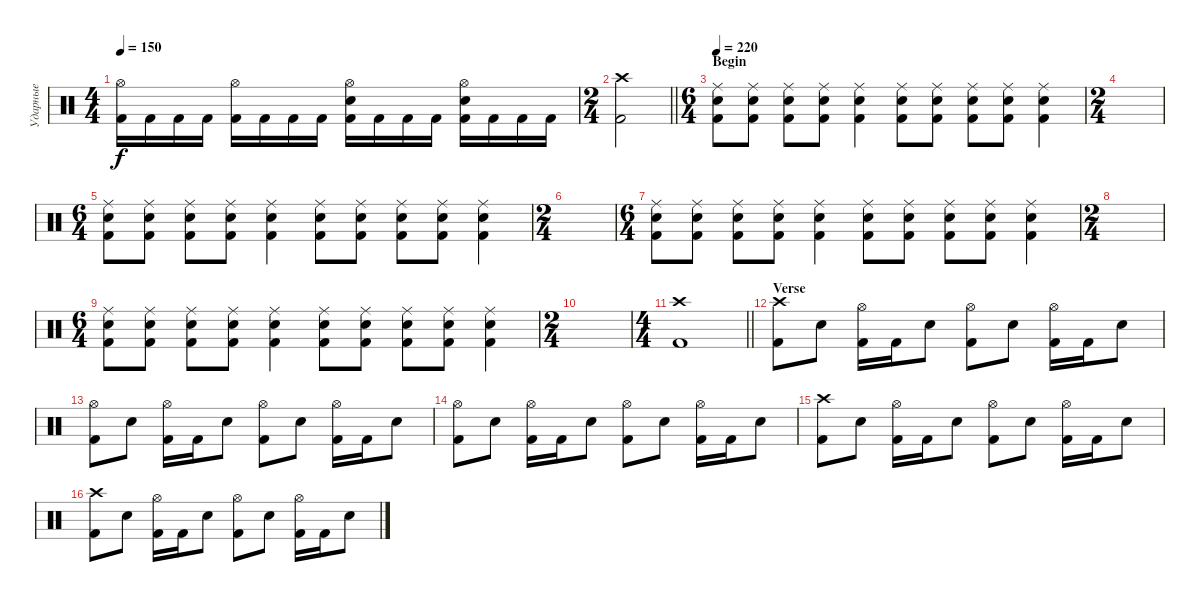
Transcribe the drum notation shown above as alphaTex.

\track ("Ударные" "Ударные") {instrument percussion}
\staff {score}
\articulation defaults
\ts (4 4)
\tempo 150
\clef neutral
\ks c
("Hi-Hat (open)" "Kick (hit) 2").16{dy f} "Kick (hit) 2".16 "Kick (hit) 2".16 "Kick (hit) 2".16 ("Hi-Hat (open)" "Kick (hit) 2").16 "Kick (hit) 2".16 "Kick (hit) 2".16 "Kick (hit) 2".16 ("Hi-Hat (open)" "Electric Snare (hit)" "Kick (hit) 2").16 "Kick (hit) 2".16 "Kick (hit) 2".16 "Kick (hit) 2".16 ("Hi-Hat (open)" "Electric Snare (hit)" "Kick (hit) 2").16 "Kick (hit) 2".16 "Kick (hit) 2".16 "Kick (hit) 2".16 |
\ts (2 4)
\barLineRight lightlight
("Crash high (hit)" "Kick (hit) 2").2 |
\ts (6 4)
\section ("" "Begin")
\tempo 220
("Ride (middle)" "Electric Snare (hit)" "Kick (hit) 2").8 ("Ride (middle)" "Electric Snare (hit)" "Kick (hit) 2").8 ("Ride (middle)" "Electric Snare (hit)" "Kick (hit) 2").8 ("Ride (middle)" "Electric Snare (hit)" "Kick (hit) 2").8 ("Ride (middle)" "Electric Snare (hit)" "Kick (hit) 2").4 ("Ride (middle)" "Electric Snare (hit)" "Kick (hit) 2").8 ("Ride (middle)" "Electric Snare (hit)" "Kick (hit) 2").8 ("Ride (middle)" "Electric Snare (hit)" "Kick (hit) 2").8 ("Ride (middle)" "Electric Snare (hit)" "Kick (hit) 2").8 ("Ride (middle)" "Electric Snare (hit)" "Kick (hit) 2").4 |
\ts (2 4)
|
\ts (6 4)
("Ride (middle)" "Electric Snare (hit)" "Kick (hit) 2").8 ("Ride (middle)" "Electric Snare (hit)" "Kick (hit) 2").8 ("Ride (middle)" "Electric Snare (hit)" "Kick (hit) 2").8 ("Ride (middle)" "Electric Snare (hit)" "Kick (hit) 2").8 ("Ride (middle)" "Electric Snare (hit)" "Kick (hit) 2").4 ("Ride (middle)" "Electric Snare (hit)" "Kick (hit) 2").8 ("Ride (middle)" "Electric Snare (hit)" "Kick (hit) 2").8 ("Ride (middle)" "Electric Snare (hit)" "Kick (hit) 2").8 ("Ride (middle)" "Electric Snare (hit)" "Kick (hit) 2").8 ("Ride (middle)" "Electric Snare (hit)" "Kick (hit) 2").4 |
\ts (2 4)
|
\ts (6 4)
("Ride (middle)" "Electric Snare (hit)" "Kick (hit) 2").8 ("Ride (middle)" "Electric Snare (hit)" "Kick (hit) 2").8 ("Ride (middle)" "Electric Snare (hit)" "Kick (hit) 2").8 ("Ride (middle)" "Electric Snare (hit)" "Kick (hit) 2").8 ("Ride (middle)" "Electric Snare (hit)" "Kick (hit) 2").4 ("Ride (middle)" "Electric Snare (hit)" "Kick (hit) 2").8 ("Ride (middle)" "Electric Snare (hit)" "Kick (hit) 2").8 ("Ride (middle)" "Electric Snare (hit)" "Kick (hit) 2").8 ("Ride (middle)" "Electric Snare (hit)" "Kick (hit) 2").8 ("Ride (middle)" "Electric Snare (hit)" "Kick (hit) 2").4 |
\ts (2 4)
|
\ts (6 4)
("Ride (middle)" "Electric Snare (hit)" "Kick (hit) 2").8 ("Ride (middle)" "Electric Snare (hit)" "Kick (hit) 2").8 ("Ride (middle)" "Electric Snare (hit)" "Kick (hit) 2").8 ("Ride (middle)" "Electric Snare (hit)" "Kick (hit) 2").8 ("Ride (middle)" "Electric Snare (hit)" "Kick (hit) 2").4 ("Ride (middle)" "Electric Snare (hit)" "Kick (hit) 2").8 ("Ride (middle)" "Electric Snare (hit)" "Kick (hit) 2").8 ("Ride (middle)" "Electric Snare (hit)" "Kick (hit) 2").8 ("Ride (middle)" "Electric Snare (hit)" "Kick (hit) 2").8 ("Ride (middle)" "Electric Snare (hit)" "Kick (hit) 2").4 |
\ts (2 4)
|
\ts (4 4)
\barLineRight lightlight
("Crash high (hit)" "Kick (hit) 2").1 |
\section ("" "Verse")
("Crash high (hit)" "Kick (hit) 2").8 "Electric Snare (hit)".8 ("Hi-Hat (open)" "Kick (hit) 2").16 "Kick (hit) 2".16 "Electric Snare (hit)".8 ("Hi-Hat (open)" "Kick (hit) 2").8 "Electric Snare (hit)".8 ("Hi-Hat (open)" "Kick (hit) 2").16 "Kick (hit) 2".16 "Electric Snare (hit)".8 |
("Hi-Hat (open)" "Kick (hit) 2").8 "Electric Snare (hit)".8 ("Hi-Hat (open)" "Kick (hit) 2").16 "Kick (hit) 2".16 "Electric Snare (hit)".8 ("Hi-Hat (open)" "Kick (hit) 2").8 "Electric Snare (hit)".8 ("Hi-Hat (open)" "Kick (hit) 2").16 "Kick (hit) 2".16 "Electric Snare (hit)".8 |
("Hi-Hat (open)" "Kick (hit) 2").8 "Electric Snare (hit)".8 ("Hi-Hat (open)" "Kick (hit) 2").16 "Kick (hit) 2".16 "Electric Snare (hit)".8 ("Hi-Hat (open)" "Kick (hit) 2").8 "Electric Snare (hit)".8 ("Hi-Hat (open)" "Kick (hit) 2").16 "Kick (hit) 2".16 "Electric Snare (hit)".8 |
("Crash high (hit)" "Kick (hit) 2").8 "Electric Snare (hit)".8 ("Hi-Hat (open)" "Kick (hit) 2").16 "Kick (hit) 2".16 "Electric Snare (hit)".8 ("Hi-Hat (open)" "Kick (hit) 2").8 "Electric Snare (hit)".8 ("Hi-Hat (open)" "Kick (hit) 2").16 "Kick (hit) 2".16 "Electric Snare (hit)".8 |
("Crash high (hit)" "Kick (hit) 2").8 "Electric Snare (hit)".8 ("Hi-Hat (open)" "Kick (hit) 2").16 "Kick (hit) 2".16 "Electric Snare (hit)".8 ("Hi-Hat (open)" "Kick (hit) 2").8 "Electric Snare (hit)".8 ("Hi-Hat (open)" "Kick (hit) 2").16 "Kick (hit) 2".16 "Electric Snare (hit)".8
